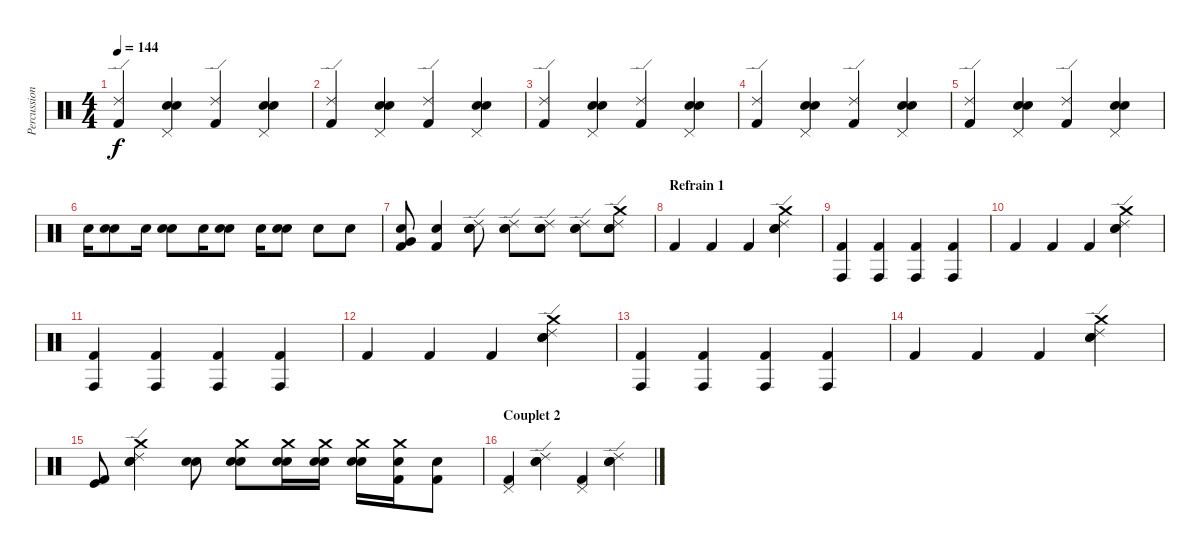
\track ("Percussions" "Percussion") {instrument percussion}
\staff {score}
\articulation defaults
\ts (4 4)
\tempo 144
\clef neutral
\ks c
("Kick (hit) 2" "Ride (edge) 2").4{dy f} ("Snare (hit) 2" "Electric Snare (hit)" "Pedal Hi-Hat (hit)").4 ("Kick (hit) 2" "Ride (edge) 2").4 ("Snare (hit) 2" "Electric Snare (hit)" "Pedal Hi-Hat (hit)").4 |
("Kick (hit) 2" "Ride (edge) 2").4 ("Snare (hit) 2" "Electric Snare (hit)" "Pedal Hi-Hat (hit)").4 ("Kick (hit) 2" "Ride (edge) 2").4 ("Snare (hit) 2" "Electric Snare (hit)" "Pedal Hi-Hat (hit)").4 |
("Kick (hit) 2" "Ride (edge) 2").4 ("Snare (hit) 2" "Electric Snare (hit)" "Pedal Hi-Hat (hit)").4 ("Kick (hit) 2" "Ride (edge) 2").4 ("Snare (hit) 2" "Electric Snare (hit)" "Pedal Hi-Hat (hit)").4 |
("Kick (hit) 2" "Ride (edge) 2").4 ("Snare (hit) 2" "Electric Snare (hit)" "Pedal Hi-Hat (hit)").4 ("Kick (hit) 2" "Ride (edge) 2").4 ("Snare (hit) 2" "Electric Snare (hit)" "Pedal Hi-Hat (hit)").4 |
("Kick (hit) 2" "Ride (edge) 2").4 ("Snare (hit) 2" "Electric Snare (hit)" "Pedal Hi-Hat (hit)").4 ("Kick (hit) 2" "Ride (edge) 2").4 ("Snare (hit) 2" "Electric Snare (hit)" "Pedal Hi-Hat (hit)").4 |
"Snare (hit) 2".16 ("Snare (hit) 2" "Electric Snare (hit)").8 "Snare (hit) 2".16 ("Snare (hit) 2" "Electric Snare (hit)").8 "Snare (hit) 2".16 ("Snare (hit) 2" "Electric Snare (hit)").8 "Snare (hit) 2".16 ("Snare (hit) 2" "Electric Snare (hit)").8 "Electric Snare (hit)".8 "Electric Snare (hit)".8 |
("Kick (hit) 2" "Very Low Tom (hit)" "Electric Snare (hit)").8 ("Kick (hit) 2" "Electric Snare (hit)").4 ("Snare (hit) 2" "Electric Snare (hit)" "Ride (edge) 2").8 ("Snare (hit) 2" "Electric Snare (hit)" "Ride (edge) 2").8 ("Snare (hit) 2" "Electric Snare (hit)" "Ride (edge) 2").8 ("Snare (hit) 2" "Electric Snare (hit)" "Ride (edge) 2").8 ("Snare (hit) 2" "Electric Snare (hit)" "Ride (edge) 2" "Crash medium (hit)").8 |
\section ("" "Refrain 1")
"Kick (hit) 2".4 "Kick (hit) 2".4 "Kick (hit) 2".4 ("Snare (hit) 2" "Electric Snare (hit)" "Ride (edge) 2" "Crash medium (hit)").4 |
("Kick (hit) 2" "Conga high (hit)").4 ("Kick (hit) 2" "Conga high (hit)").4 ("Kick (hit) 2" "Conga high (hit)").4 ("Kick (hit) 2" "Conga high (hit)").4 |
"Kick (hit) 2".4 "Kick (hit) 2".4 "Kick (hit) 2".4 ("Snare (hit) 2" "Electric Snare (hit)" "Ride (edge) 2" "Crash medium (hit)").4 |
("Kick (hit) 2" "Conga high (hit)").4 ("Kick (hit) 2" "Conga high (hit)").4 ("Kick (hit) 2" "Conga high (hit)").4 ("Kick (hit) 2" "Conga high (hit)").4 |
"Kick (hit) 2".4 "Kick (hit) 2".4 "Kick (hit) 2".4 ("Snare (hit) 2" "Electric Snare (hit)" "Ride (edge) 2" "Crash medium (hit)").4 |
("Kick (hit) 2" "Conga high (hit)").4 ("Kick (hit) 2" "Conga high (hit)").4 ("Kick (hit) 2" "Conga high (hit)").4 ("Kick (hit) 2" "Conga high (hit)").4 |
"Kick (hit) 2".4 "Kick (hit) 2".4 "Kick (hit) 2".4 ("Snare (hit) 2" "Electric Snare (hit)" "Ride (edge) 2" "Crash medium (hit)").4 |
("Kick (hit) 2" "Kick (hit)").8 ("Snare (hit) 2" "Electric Snare (hit)" "Ride (edge) 2" "Crash medium (hit)").4 ("Snare (hit) 2" "Electric Snare (hit)").8 ("Snare (hit) 2" "Electric Snare (hit)" "Crash medium (hit)").8 ("Snare (hit) 2" "Electric Snare (hit)" "Crash medium (hit)").16 ("Snare (hit) 2" "Electric Snare (hit)" "Crash medium (hit)").16 ("Snare (hit) 2" "Electric Snare (hit)" "Crash medium (hit)").16 ("Kick (hit) 2" "Electric Snare (hit)" "Crash medium (hit)").16 ("Kick (hit) 2" "Electric Snare (hit)").8 |
\section ("" "Couplet 2")
("Kick (hit) 2" "Pedal Hi-Hat (hit)").4 ("Snare (hit) 2" "Electric Snare (hit)" "Ride (edge) 2").4 ("Kick (hit) 2" "Pedal Hi-Hat (hit)").4 ("Snare (hit) 2" "Electric Snare (hit)" "Ride (edge) 2").4
